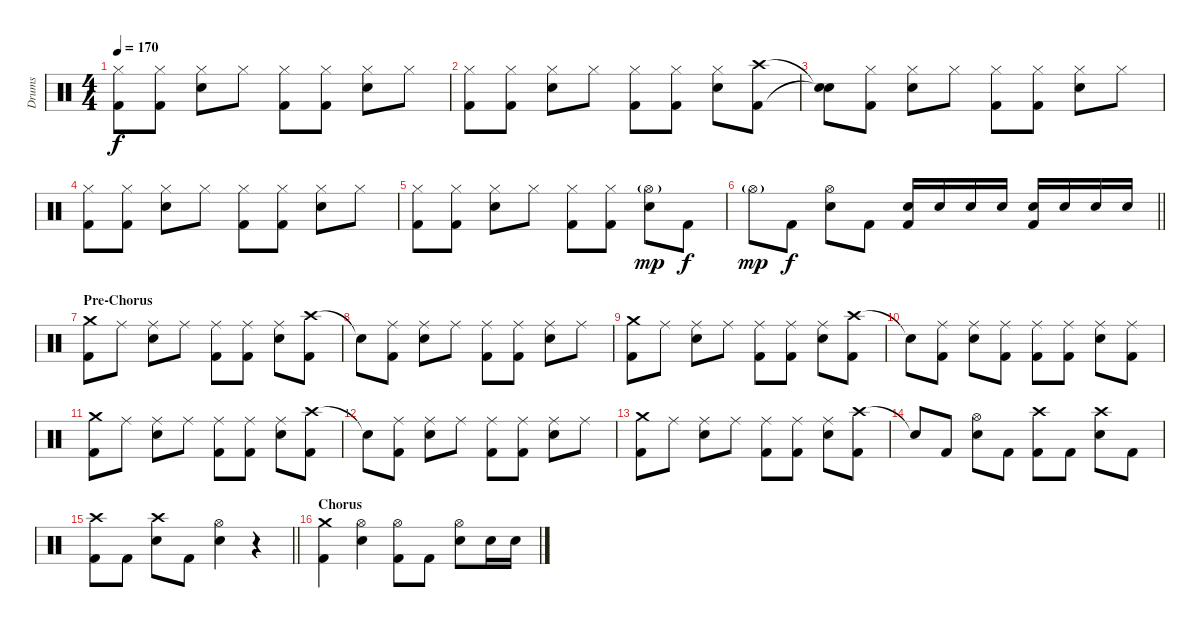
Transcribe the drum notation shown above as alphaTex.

\track ("Drums" "Drums") {instrument percussion}
\staff {score}
\articulation defaults
\ts (4 4)
\tempo 170
\clef neutral
\ks c
("Hi-Hat (closed)" "Kick (hit) 2").8{dy f} ("Hi-Hat (closed)" "Kick (hit) 2").8 ("Hi-Hat (closed)" "Electric Snare (hit)").8 "Hi-Hat (closed)".8 ("Hi-Hat (closed)" "Kick (hit) 2").8 ("Hi-Hat (closed)" "Kick (hit) 2").8 ("Hi-Hat (closed)" "Electric Snare (hit)").8 "Hi-Hat (closed)".8 |
("Hi-Hat (closed)" "Kick (hit) 2").8 ("Hi-Hat (closed)" "Kick (hit) 2").8 ("Hi-Hat (closed)" "Electric Snare (hit)").8 "Hi-Hat (closed)".8 ("Hi-Hat (closed)" "Kick (hit) 2").8 ("Hi-Hat (closed)" "Kick (hit) 2").8 ("Hi-Hat (closed)" "Electric Snare (hit)").8 ("Crash high (hit)" "Kick (hit) 2").8 |
("Snare (hit)"{t} "Snare (hit)"{t}).8 ("Hi-Hat (closed)" "Kick (hit) 2").8 ("Hi-Hat (closed)" "Electric Snare (hit)").8 "Hi-Hat (closed)".8 ("Hi-Hat (closed)" "Kick (hit) 2").8 ("Hi-Hat (closed)" "Kick (hit) 2").8 ("Hi-Hat (closed)" "Electric Snare (hit)").8 "Hi-Hat (closed)".8 |
("Hi-Hat (closed)" "Kick (hit) 2").8 ("Hi-Hat (closed)" "Kick (hit) 2").8 ("Hi-Hat (closed)" "Electric Snare (hit)").8 "Hi-Hat (closed)".8 ("Hi-Hat (closed)" "Kick (hit) 2").8 ("Hi-Hat (closed)" "Kick (hit) 2").8 ("Hi-Hat (closed)" "Electric Snare (hit)").8 "Hi-Hat (closed)".8 |
("Hi-Hat (closed)" "Kick (hit) 2").8 ("Hi-Hat (closed)" "Kick (hit) 2").8 ("Hi-Hat (closed)" "Electric Snare (hit)").8 "Hi-Hat (closed)".8 ("Hi-Hat (closed)" "Kick (hit) 2").8 ("Hi-Hat (closed)" "Kick (hit) 2").8 ("Hi-Hat (open)"{g} "Electric Snare (hit)").8{dy mp} "Kick (hit) 2".8{dy f} |
\barLineRight lightlight "Hi-Hat (open)"{g}.8{dy mp} "Kick (hit) 2".8{dy f}
("Hi-Hat (open)" "Electric Snare (hit)").8 "Kick (hit) 2".8 ("Electric Snare (hit)" "Kick (hit) 2").16 "Electric Snare (hit)".16 "Electric Snare (hit)".16 "Electric Snare (hit)".16 ("Electric Snare (hit)" "Kick (hit) 2").16 "Electric Snare (hit)".16 "Electric Snare (hit)".16 "Electric Snare (hit)".16 |
\section ("" "Pre-Chorus")
("Crash medium (hit)" "Kick (hit) 2").8 "Ride (middle)".8 ("Ride (middle)" "Electric Snare (hit)").8 "Ride (middle)".8 ("Ride (middle)" "Kick (hit) 2").8 ("Ride (middle)" "Kick (hit) 2").8 ("Ride (middle)" "Electric Snare (hit)").8 ("Crash high (hit)" "Kick (hit) 2").8 |
"Snare (hit)"{t}.8 ("Ride (middle)" "Kick (hit) 2").8 ("Ride (middle)" "Electric Snare (hit)").8 "Ride (middle)".8 ("Ride (middle)" "Kick (hit) 2").8 ("Ride (middle)" "Kick (hit) 2").8 ("Ride (middle)" "Electric Snare (hit)").8 "Ride (middle)".8 |
("Crash medium (hit)" "Kick (hit) 2").8 "Ride (middle)".8 ("Ride (middle)" "Electric Snare (hit)").8 "Ride (middle)".8 ("Ride (middle)" "Kick (hit) 2").8 ("Ride (middle)" "Kick (hit) 2").8 ("Ride (middle)" "Electric Snare (hit)").8 ("Crash high (hit)" "Kick (hit) 2").8 |
"Snare (hit)"{t}.8 ("Ride (middle)" "Kick (hit) 2").8 ("Ride (middle)" "Electric Snare (hit)").8 ("Ride (middle)" "Kick (hit) 2").8 ("Ride (middle)" "Kick (hit) 2").8 ("Ride (middle)" "Kick (hit) 2").8 ("Ride (middle)" "Electric Snare (hit)").8 ("Ride (middle)" "Kick (hit) 2").8 |
("Crash medium (hit)" "Kick (hit) 2").8 "Ride (middle)".8 ("Ride (middle)" "Electric Snare (hit)").8 "Ride (middle)".8 ("Ride (middle)" "Kick (hit) 2").8 ("Ride (middle)" "Kick (hit) 2").8 ("Ride (middle)" "Electric Snare (hit)").8 ("Crash high (hit)" "Kick (hit) 2").8 |
"Snare (hit)"{t}.8 ("Ride (middle)" "Kick (hit) 2").8 ("Ride (middle)" "Electric Snare (hit)").8 "Ride (middle)".8 ("Ride (middle)" "Kick (hit) 2").8 ("Ride (middle)" "Kick (hit) 2").8 ("Ride (middle)" "Electric Snare (hit)").8 "Ride (middle)".8 |
("Crash medium (hit)" "Kick (hit) 2").8 "Ride (middle)".8 ("Ride (middle)" "Electric Snare (hit)").8 "Ride (middle)".8 ("Ride (middle)" "Kick (hit) 2").8 ("Ride (middle)" "Kick (hit) 2").8 ("Ride (middle)" "Electric Snare (hit)").8 ("Crash high (hit)" "Kick (hit) 2").8 |
"Snare (hit)"{t}.8 "Kick (hit) 2".8 ("Hi-Hat (open)" "Electric Snare (hit)").8 "Kick (hit) 2".8 ("Crash high (hit)" "Kick (hit) 2").8 "Kick (hit) 2".8 ("Crash high (hit)" "Electric Snare (hit)").8 "Kick (hit) 2".8 |
\barLineRight lightlight
("Crash high (hit)" "Kick (hit) 2").8 "Kick (hit) 2".8 ("Crash high (hit)" "Electric Snare (hit)").8 "Kick (hit) 2".8 ("Hi-Hat (open)" "Electric Snare (hit)").4 r.4 |
\section ("" "Chorus")
("Crash medium (hit)" "Kick (hit) 2").4 ("Hi-Hat (open)" "Electric Snare (hit)").4 ("Hi-Hat (open)" "Kick (hit) 2").8 "Kick (hit) 2".8 ("Hi-Hat (open)" "Electric Snare (hit)").8 "Electric Snare (hit)".16 "Electric Snare (hit)".16
